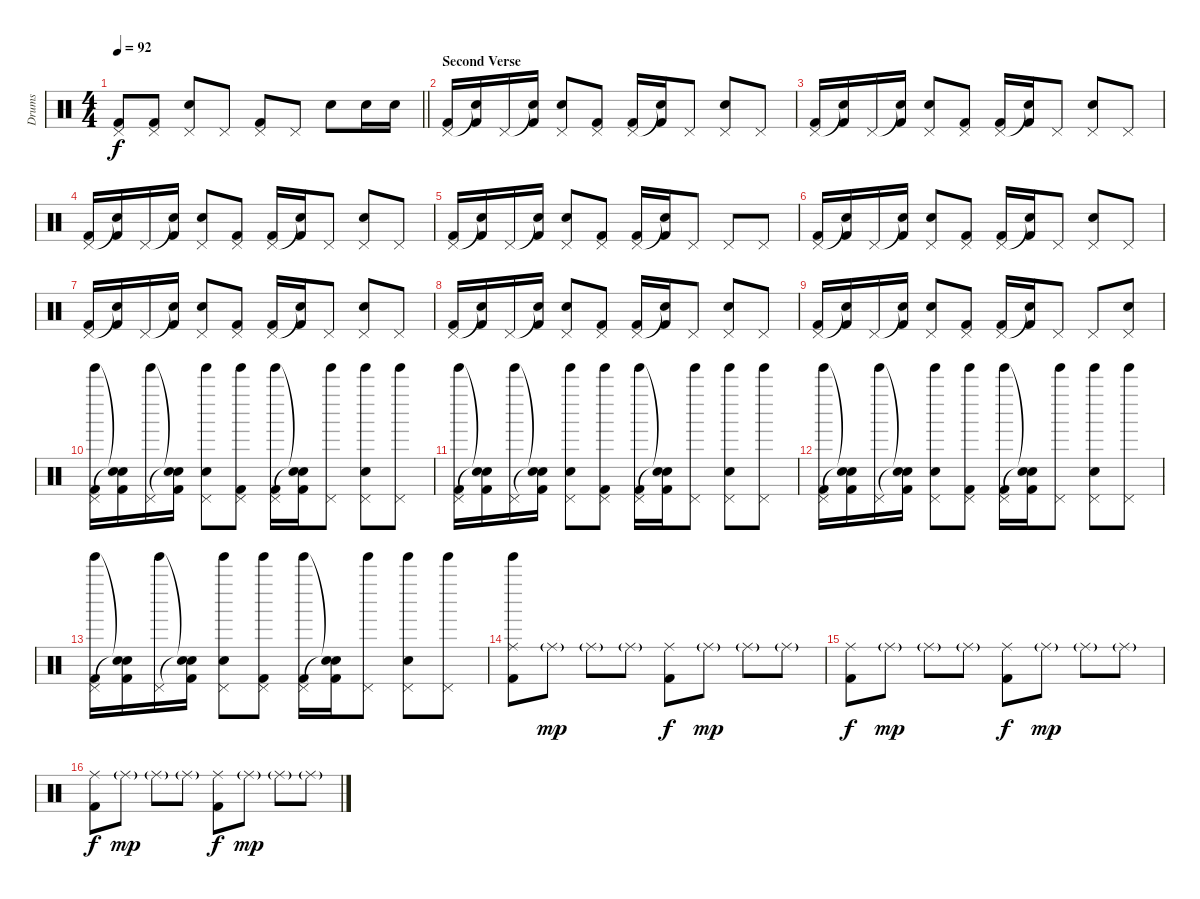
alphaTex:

\track ("Drums" "Drums") {instrument percussion}
\staff {score}
\articulation defaults
\ts (4 4)
\tempo 92
\clef neutral
\barLineRight lightlight
\ks c
("Pedal Hi-Hat (hit)" "Kick (hit) 2").8{dy f} ("Pedal Hi-Hat (hit)" "Kick (hit) 2").8 ("Pedal Hi-Hat (hit)" "Electric Snare (hit)").8 "Pedal Hi-Hat (hit)".8 ("Pedal Hi-Hat (hit)" "Kick (hit) 2").8 "Pedal Hi-Hat (hit)".8 "Electric Snare (hit)".8 "Electric Snare (hit)".16 "Electric Snare (hit)".16 |
\section ("" "Second Verse")
("Pedal Hi-Hat (hit)" "Kick (hit) 2").16 ("Snare (hit)"{t} "Kick (hit) 2").16 "Pedal Hi-Hat (hit)".16 ("Snare (hit)"{t} "Kick (hit) 2").16 ("Pedal Hi-Hat (hit)" "Electric Snare (hit)").8 ("Pedal Hi-Hat (hit)" "Kick (hit) 2").8 ("Pedal Hi-Hat (hit)" "Kick (hit) 2").16 ("Snare (hit)"{t} "Kick (hit) 2").16 "Pedal Hi-Hat (hit)".8 ("Pedal Hi-Hat (hit)" "Electric Snare (hit)").8 "Pedal Hi-Hat (hit)".8 |
("Pedal Hi-Hat (hit)" "Kick (hit) 2").16 ("Snare (hit)"{t} "Kick (hit) 2").16 "Pedal Hi-Hat (hit)".16 ("Snare (hit)"{t} "Kick (hit) 2").16 ("Pedal Hi-Hat (hit)" "Electric Snare (hit)").8 ("Pedal Hi-Hat (hit)" "Kick (hit) 2").8 ("Pedal Hi-Hat (hit)" "Kick (hit) 2").16 ("Snare (hit)"{t} "Kick (hit) 2").16 "Pedal Hi-Hat (hit)".8 ("Pedal Hi-Hat (hit)" "Electric Snare (hit)").8 "Pedal Hi-Hat (hit)".8 |
("Pedal Hi-Hat (hit)" "Kick (hit) 2").16 ("Snare (hit)"{t} "Kick (hit) 2").16 "Pedal Hi-Hat (hit)".16 ("Snare (hit)"{t} "Kick (hit) 2").16 ("Pedal Hi-Hat (hit)" "Electric Snare (hit)").8 ("Pedal Hi-Hat (hit)" "Kick (hit) 2").8 ("Pedal Hi-Hat (hit)" "Kick (hit) 2").16 ("Snare (hit)"{t} "Kick (hit) 2").16 "Pedal Hi-Hat (hit)".8 ("Pedal Hi-Hat (hit)" "Electric Snare (hit)").8 "Pedal Hi-Hat (hit)".8 |
("Pedal Hi-Hat (hit)" "Kick (hit) 2").16 ("Snare (hit)"{t} "Kick (hit) 2").16 "Pedal Hi-Hat (hit)".16 ("Snare (hit)"{t} "Kick (hit) 2").16 ("Pedal Hi-Hat (hit)" "Electric Snare (hit)").8 ("Pedal Hi-Hat (hit)" "Kick (hit) 2").8 ("Pedal Hi-Hat (hit)" "Kick (hit) 2").16 ("Snare (hit)"{t} "Kick (hit) 2").16 "Pedal Hi-Hat (hit)".8 "Pedal Hi-Hat (hit)".8 "Pedal Hi-Hat (hit)".8 |
("Pedal Hi-Hat (hit)" "Kick (hit) 2").16 ("Snare (hit)"{t} "Kick (hit) 2").16 "Pedal Hi-Hat (hit)".16 ("Snare (hit)"{t} "Kick (hit) 2").16 ("Pedal Hi-Hat (hit)" "Electric Snare (hit)").8 ("Pedal Hi-Hat (hit)" "Kick (hit) 2").8 ("Pedal Hi-Hat (hit)" "Kick (hit) 2").16 ("Snare (hit)"{t} "Kick (hit) 2").16 "Pedal Hi-Hat (hit)".8 ("Pedal Hi-Hat (hit)" "Electric Snare (hit)").8 "Pedal Hi-Hat (hit)".8 |
("Pedal Hi-Hat (hit)" "Kick (hit) 2").16 ("Snare (hit)"{t} "Kick (hit) 2").16 "Pedal Hi-Hat (hit)".16 ("Snare (hit)"{t} "Kick (hit) 2").16 ("Pedal Hi-Hat (hit)" "Electric Snare (hit)").8 ("Pedal Hi-Hat (hit)" "Kick (hit) 2").8 ("Pedal Hi-Hat (hit)" "Kick (hit) 2").16 ("Snare (hit)"{t} "Kick (hit) 2").16 "Pedal Hi-Hat (hit)".8 ("Pedal Hi-Hat (hit)" "Electric Snare (hit)").8 "Pedal Hi-Hat (hit)".8 |
("Pedal Hi-Hat (hit)" "Kick (hit) 2").16 ("Snare (hit)"{t} "Kick (hit) 2").16 "Pedal Hi-Hat (hit)".16 ("Snare (hit)"{t} "Kick (hit) 2").16 ("Pedal Hi-Hat (hit)" "Electric Snare (hit)").8 ("Pedal Hi-Hat (hit)" "Kick (hit) 2").8 ("Pedal Hi-Hat (hit)" "Kick (hit) 2").16 ("Snare (hit)"{t} "Kick (hit) 2").16 "Pedal Hi-Hat (hit)".8 ("Pedal Hi-Hat (hit)" "Electric Snare (hit)").8 "Pedal Hi-Hat (hit)".8 |
("Pedal Hi-Hat (hit)" "Kick (hit) 2").16 ("Snare (hit)"{t} "Kick (hit) 2").16 "Pedal Hi-Hat (hit)".16 ("Snare (hit)"{t} "Kick (hit) 2").16 ("Pedal Hi-Hat (hit)" "Electric Snare (hit)").8 ("Pedal Hi-Hat (hit)" "Kick (hit) 2").8 ("Pedal Hi-Hat (hit)" "Kick (hit) 2").16 ("Snare (hit)"{t} "Kick (hit) 2").16 "Pedal Hi-Hat (hit)".8 "Pedal Hi-Hat (hit)".8 ("Pedal Hi-Hat (hit)" "Electric Snare (hit)").8 |
("Tinkle Bell (hit)" "Pedal Hi-Hat (hit)" "Kick (hit) 2").16 ("Snare (hit)"{t} "Snare (hit)"{t} "Kick (hit) 2").16 ("Tinkle Bell (hit)" "Pedal Hi-Hat (hit)").16 ("Snare (hit)"{t} "Snare (hit)"{t} "Kick (hit) 2").16 ("Tinkle Bell (hit)" "Pedal Hi-Hat (hit)" "Electric Snare (hit)").8 ("Tinkle Bell (hit)" "Pedal Hi-Hat (hit)" "Kick (hit) 2").8 ("Tinkle Bell (hit)" "Pedal Hi-Hat (hit)" "Kick (hit) 2").16 ("Snare (hit)"{t} "Snare (hit)"{t} "Kick (hit) 2").16 ("Tinkle Bell (hit)" "Pedal Hi-Hat (hit)").8 ("Tinkle Bell (hit)" "Pedal Hi-Hat (hit)" "Electric Snare (hit)").8 ("Tinkle Bell (hit)" "Pedal Hi-Hat (hit)").8 |
("Tinkle Bell (hit)" "Pedal Hi-Hat (hit)" "Kick (hit) 2").16 ("Snare (hit)"{t} "Snare (hit)"{t} "Kick (hit) 2").16 ("Tinkle Bell (hit)" "Pedal Hi-Hat (hit)").16 ("Snare (hit)"{t} "Snare (hit)"{t} "Kick (hit) 2").16 ("Tinkle Bell (hit)" "Pedal Hi-Hat (hit)" "Electric Snare (hit)").8 ("Tinkle Bell (hit)" "Pedal Hi-Hat (hit)" "Kick (hit) 2").8 ("Tinkle Bell (hit)" "Pedal Hi-Hat (hit)" "Kick (hit) 2").16 ("Snare (hit)"{t} "Snare (hit)"{t} "Kick (hit) 2").16 ("Tinkle Bell (hit)" "Pedal Hi-Hat (hit)").8 ("Tinkle Bell (hit)" "Pedal Hi-Hat (hit)" "Electric Snare (hit)").8 ("Tinkle Bell (hit)" "Pedal Hi-Hat (hit)").8 |
("Tinkle Bell (hit)" "Pedal Hi-Hat (hit)" "Kick (hit) 2").16 ("Snare (hit)"{t} "Snare (hit)"{t} "Kick (hit) 2").16 ("Tinkle Bell (hit)" "Pedal Hi-Hat (hit)").16 ("Snare (hit)"{t} "Snare (hit)"{t} "Kick (hit) 2").16 ("Tinkle Bell (hit)" "Pedal Hi-Hat (hit)" "Electric Snare (hit)").8 ("Tinkle Bell (hit)" "Pedal Hi-Hat (hit)" "Kick (hit) 2").8 ("Tinkle Bell (hit)" "Pedal Hi-Hat (hit)" "Kick (hit) 2").16 ("Snare (hit)"{t} "Snare (hit)"{t} "Kick (hit) 2").16 ("Tinkle Bell (hit)" "Pedal Hi-Hat (hit)").8 ("Tinkle Bell (hit)" "Pedal Hi-Hat (hit)" "Electric Snare (hit)").8 ("Tinkle Bell (hit)" "Pedal Hi-Hat (hit)").8 |
("Tinkle Bell (hit)" "Pedal Hi-Hat (hit)" "Kick (hit) 2").16 ("Snare (hit)"{t} "Snare (hit)"{t} "Kick (hit) 2").16 ("Tinkle Bell (hit)" "Pedal Hi-Hat (hit)").16 ("Snare (hit)"{t} "Snare (hit)"{t} "Kick (hit) 2").16 ("Tinkle Bell (hit)" "Pedal Hi-Hat (hit)" "Electric Snare (hit)").8 ("Tinkle Bell (hit)" "Pedal Hi-Hat (hit)" "Kick (hit) 2").8 ("Tinkle Bell (hit)" "Pedal Hi-Hat (hit)" "Kick (hit) 2").16 ("Snare (hit)"{t} "Snare (hit)"{t} "Kick (hit) 2").16 ("Tinkle Bell (hit)" "Pedal Hi-Hat (hit)").8 ("Tinkle Bell (hit)" "Pedal Hi-Hat (hit)" "Electric Snare (hit)").8 ("Tinkle Bell (hit)" "Pedal Hi-Hat (hit)").8 |
("Tinkle Bell (hit)" "Ride (middle)" "Kick (hit) 2").8 "Ride (middle)"{g}.8{dy mp} "Ride (middle)"{g}.8 "Ride (middle)"{g}.8 ("Ride (middle)" "Kick (hit) 2").8{dy f} "Ride (middle)"{g}.8{dy mp} "Ride (middle)"{g}.8 "Ride (middle)"{g}.8 |
("Ride (middle)" "Kick (hit) 2").8{dy f} "Ride (middle)"{g}.8{dy mp} "Ride (middle)"{g}.8 "Ride (middle)"{g}.8 ("Ride (middle)" "Kick (hit) 2").8{dy f} "Ride (middle)"{g}.8{dy mp} "Ride (middle)"{g}.8 "Ride (middle)"{g}.8 |
("Ride (middle)" "Kick (hit) 2").8{dy f} "Ride (middle)"{g}.8{dy mp} "Ride (middle)"{g}.8 "Ride (middle)"{g}.8 ("Ride (middle)" "Kick (hit) 2").8{dy f} "Ride (middle)"{g}.8{dy mp} "Ride (middle)"{g}.8 "Ride (middle)"{g}.8
